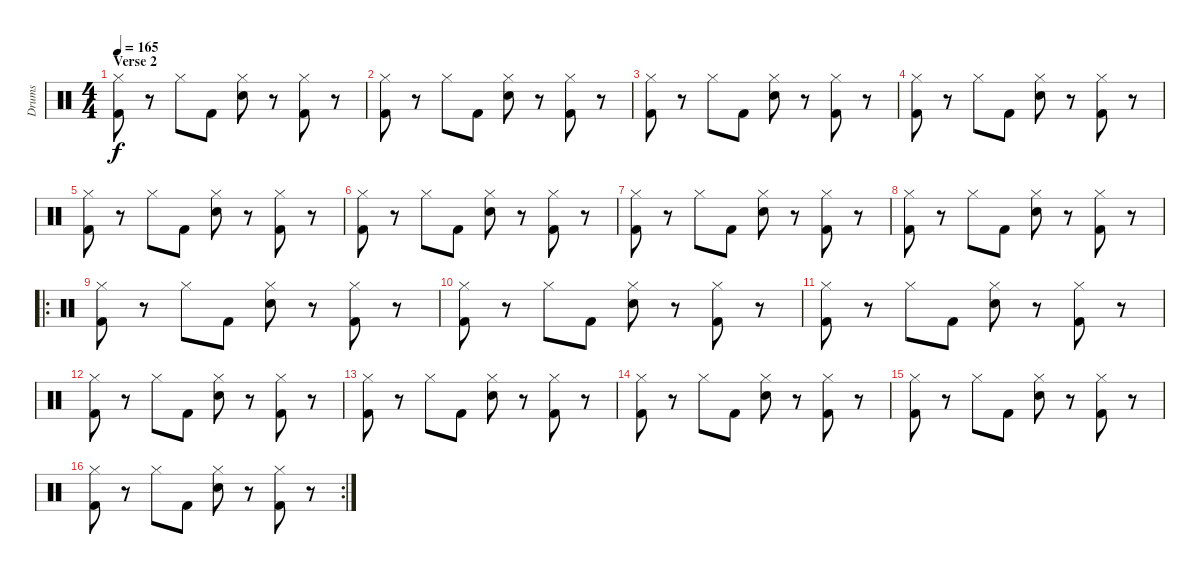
\track ("Drums" "Drums") {instrument percussion}
\staff {score}
\articulation defaults
\ts (4 4)
\section ("" "Verse 2")
\tempo 165
\clef neutral
\ks c
("Hi-Hat (closed)" "Kick (hit) 2").8{dy f} r.8 "Hi-Hat (closed)".8 "Kick (hit) 2".8 ("Hi-Hat (closed)" "Electric Snare (hit)").8 r.8 ("Hi-Hat (closed)" "Kick (hit) 2").8 r.8 |
("Hi-Hat (closed)" "Kick (hit) 2").8 r.8 "Hi-Hat (closed)".8 "Kick (hit) 2".8 ("Hi-Hat (closed)" "Electric Snare (hit)").8 r.8 ("Hi-Hat (closed)" "Kick (hit) 2").8 r.8 |
("Hi-Hat (closed)" "Kick (hit) 2").8 r.8 "Hi-Hat (closed)".8 "Kick (hit) 2".8 ("Hi-Hat (closed)" "Electric Snare (hit)").8 r.8 ("Hi-Hat (closed)" "Kick (hit) 2").8 r.8 |
("Hi-Hat (closed)" "Kick (hit) 2").8 r.8 "Hi-Hat (closed)".8 "Kick (hit) 2".8 ("Hi-Hat (closed)" "Electric Snare (hit)").8 r.8 ("Hi-Hat (closed)" "Kick (hit) 2").8 r.8 |
("Hi-Hat (closed)" "Kick (hit) 2").8 r.8 "Hi-Hat (closed)".8 "Kick (hit) 2".8 ("Hi-Hat (closed)" "Electric Snare (hit)").8 r.8 ("Hi-Hat (closed)" "Kick (hit) 2").8 r.8 |
("Hi-Hat (closed)" "Kick (hit) 2").8 r.8 "Hi-Hat (closed)".8 "Kick (hit) 2".8 ("Hi-Hat (closed)" "Electric Snare (hit)").8 r.8 ("Hi-Hat (closed)" "Kick (hit) 2").8 r.8 |
("Hi-Hat (closed)" "Kick (hit) 2").8 r.8 "Hi-Hat (closed)".8 "Kick (hit) 2".8 ("Hi-Hat (closed)" "Electric Snare (hit)").8 r.8 ("Hi-Hat (closed)" "Kick (hit) 2").8 r.8 |
("Hi-Hat (closed)" "Kick (hit) 2").8 r.8 "Hi-Hat (closed)".8 "Kick (hit) 2".8 ("Hi-Hat (closed)" "Electric Snare (hit)").8 r.8 ("Hi-Hat (closed)" "Kick (hit) 2").8 r.8 |
\ro
("Hi-Hat (closed)" "Kick (hit) 2").8 r.8 "Hi-Hat (closed)".8 "Kick (hit) 2".8 ("Hi-Hat (closed)" "Electric Snare (hit)").8 r.8 ("Hi-Hat (closed)" "Kick (hit) 2").8 r.8 |
("Hi-Hat (closed)" "Kick (hit) 2").8 r.8 "Hi-Hat (closed)".8 "Kick (hit) 2".8 ("Hi-Hat (closed)" "Electric Snare (hit)").8 r.8 ("Hi-Hat (closed)" "Kick (hit) 2").8 r.8 |
("Hi-Hat (closed)" "Kick (hit) 2").8 r.8 "Hi-Hat (closed)".8 "Kick (hit) 2".8 ("Hi-Hat (closed)" "Electric Snare (hit)").8 r.8 ("Hi-Hat (closed)" "Kick (hit) 2").8 r.8 |
("Hi-Hat (closed)" "Kick (hit) 2").8 r.8 "Hi-Hat (closed)".8 "Kick (hit) 2".8 ("Hi-Hat (closed)" "Electric Snare (hit)").8 r.8 ("Hi-Hat (closed)" "Kick (hit) 2").8 r.8 |
("Hi-Hat (closed)" "Kick (hit) 2").8 r.8 "Hi-Hat (closed)".8 "Kick (hit) 2".8 ("Hi-Hat (closed)" "Electric Snare (hit)").8 r.8 ("Hi-Hat (closed)" "Kick (hit) 2").8 r.8 |
("Hi-Hat (closed)" "Kick (hit) 2").8 r.8 "Hi-Hat (closed)".8 "Kick (hit) 2".8 ("Hi-Hat (closed)" "Electric Snare (hit)").8 r.8 ("Hi-Hat (closed)" "Kick (hit) 2").8 r.8 |
("Hi-Hat (closed)" "Kick (hit) 2").8 r.8 "Hi-Hat (closed)".8 "Kick (hit) 2".8 ("Hi-Hat (closed)" "Electric Snare (hit)").8 r.8 ("Hi-Hat (closed)" "Kick (hit) 2").8 r.8 |
\rc 2
("Hi-Hat (closed)" "Kick (hit) 2").8 r.8 "Hi-Hat (closed)".8 "Kick (hit) 2".8 ("Hi-Hat (closed)" "Electric Snare (hit)").8 r.8 ("Hi-Hat (closed)" "Kick (hit) 2").8 r.8
